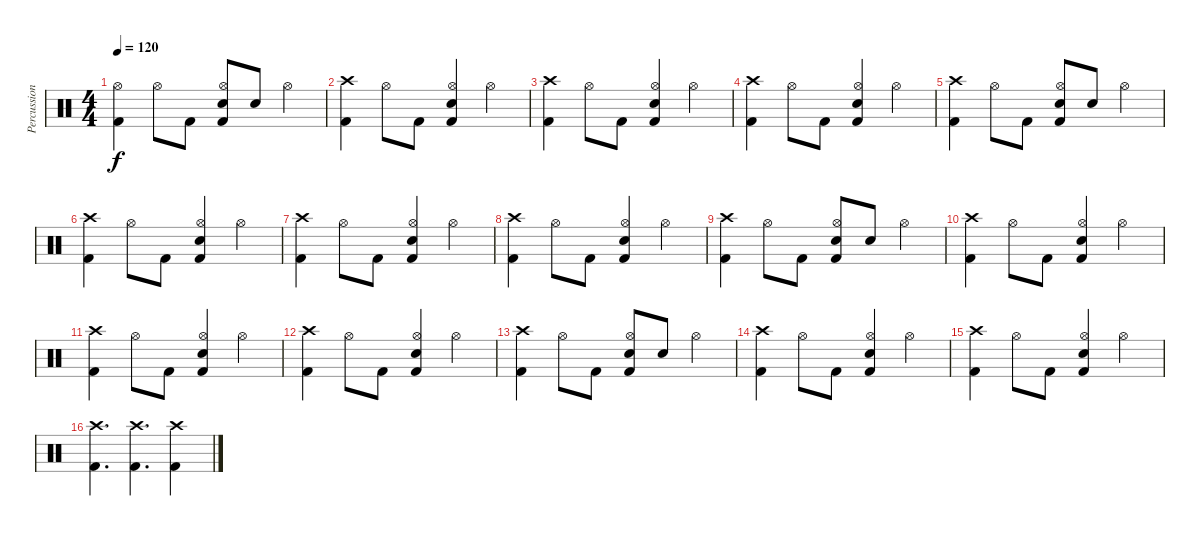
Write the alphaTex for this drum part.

\track ("Percussion" "Percussion") {instrument percussion}
\staff {score}
\articulation defaults
\ts (4 4)
\tempo 120
\clef neutral
\ks c
("Kick (hit) 2" "Hi-Hat (open)").4{dy f} "Hi-Hat (open)".8 "Kick (hit) 2".8 ("Kick (hit) 2" "Electric Snare (hit)" "Hi-Hat (open)").8 "Electric Snare (hit)".8 "Hi-Hat (open)".4 |
("Kick (hit) 2" "Crash high (hit)").4 "Hi-Hat (open)".8 "Kick (hit) 2".8 ("Kick (hit) 2" "Electric Snare (hit)" "Hi-Hat (open)").4 "Hi-Hat (open)".4 |
("Kick (hit) 2" "Crash high (hit)").4 "Hi-Hat (open)".8 "Kick (hit) 2".8 ("Kick (hit) 2" "Electric Snare (hit)" "Hi-Hat (open)").4 "Hi-Hat (open)".4 |
("Kick (hit) 2" "Crash high (hit)").4 "Hi-Hat (open)".8 "Kick (hit) 2".8 ("Kick (hit) 2" "Electric Snare (hit)" "Hi-Hat (open)").4 "Hi-Hat (open)".4 |
("Kick (hit) 2" "Crash high (hit)").4 "Hi-Hat (open)".8 "Kick (hit) 2".8 ("Kick (hit) 2" "Electric Snare (hit)" "Hi-Hat (open)").8 "Electric Snare (hit)".8 "Hi-Hat (open)".4 |
("Kick (hit) 2" "Crash high (hit)").4 "Hi-Hat (open)".8 "Kick (hit) 2".8 ("Kick (hit) 2" "Electric Snare (hit)" "Hi-Hat (open)").4 "Hi-Hat (open)".4 |
("Kick (hit) 2" "Crash high (hit)").4 "Hi-Hat (open)".8 "Kick (hit) 2".8 ("Kick (hit) 2" "Electric Snare (hit)" "Hi-Hat (open)").4 "Hi-Hat (open)".4 |
("Kick (hit) 2" "Crash high (hit)").4 "Hi-Hat (open)".8 "Kick (hit) 2".8 ("Kick (hit) 2" "Electric Snare (hit)" "Hi-Hat (open)").4 "Hi-Hat (open)".4 |
("Kick (hit) 2" "Crash high (hit)").4 "Hi-Hat (open)".8 "Kick (hit) 2".8 ("Kick (hit) 2" "Electric Snare (hit)" "Hi-Hat (open)").8 "Electric Snare (hit)".8 "Hi-Hat (open)".4 |
("Kick (hit) 2" "Crash high (hit)").4 "Hi-Hat (open)".8 "Kick (hit) 2".8 ("Kick (hit) 2" "Electric Snare (hit)" "Hi-Hat (open)").4 "Hi-Hat (open)".4 |
("Kick (hit) 2" "Crash high (hit)").4 "Hi-Hat (open)".8 "Kick (hit) 2".8 ("Kick (hit) 2" "Electric Snare (hit)" "Hi-Hat (open)").4 "Hi-Hat (open)".4 |
("Kick (hit) 2" "Crash high (hit)").4 "Hi-Hat (open)".8 "Kick (hit) 2".8 ("Kick (hit) 2" "Electric Snare (hit)" "Hi-Hat (open)").4 "Hi-Hat (open)".4 |
("Kick (hit) 2" "Crash high (hit)").4 "Hi-Hat (open)".8 "Kick (hit) 2".8 ("Kick (hit) 2" "Electric Snare (hit)" "Hi-Hat (open)").8 "Electric Snare (hit)".8 "Hi-Hat (open)".4 |
("Kick (hit) 2" "Crash high (hit)").4 "Hi-Hat (open)".8 "Kick (hit) 2".8 ("Kick (hit) 2" "Electric Snare (hit)" "Hi-Hat (open)").4 "Hi-Hat (open)".4 |
("Kick (hit) 2" "Crash high (hit)").4 "Hi-Hat (open)".8 "Kick (hit) 2".8 ("Kick (hit) 2" "Electric Snare (hit)" "Hi-Hat (open)").4 "Hi-Hat (open)".4 |
("Kick (hit) 2" "Crash high (hit)").4{d} ("Kick (hit) 2" "Crash high (hit)").4{d} ("Kick (hit) 2" "Crash high (hit)").4
